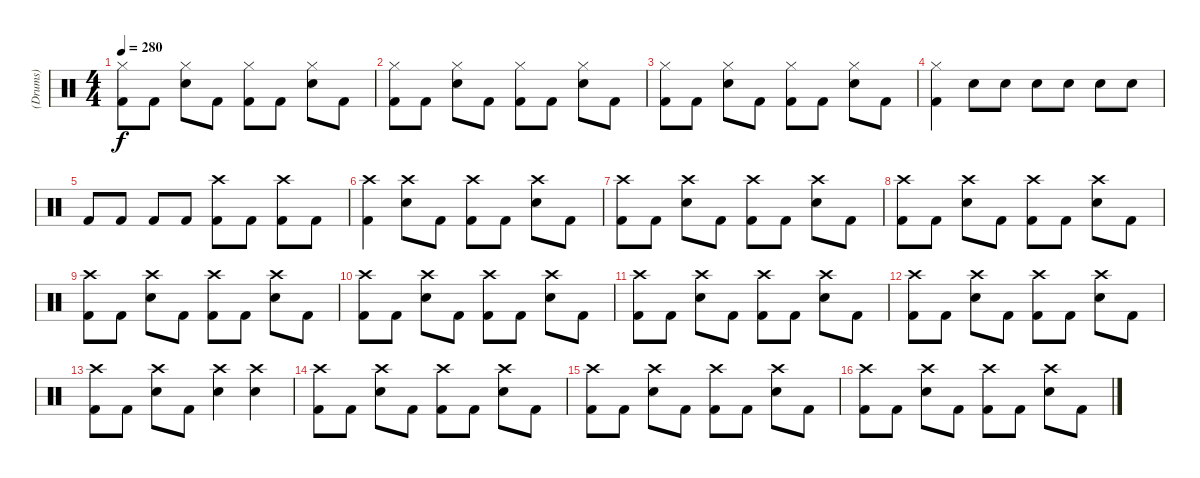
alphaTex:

\track ("(Drums)" "(Drums)") {instrument percussion}
\staff {score}
\articulation defaults
\ts (4 4)
\tempo 280
\clef neutral
\ks c
("Hi-Hat (closed)" "Kick (hit) 2").8{dy f} "Kick (hit) 2".8 ("Hi-Hat (closed)" "Snare (hit) 2").8 "Kick (hit) 2".8 ("Hi-Hat (closed)" "Kick (hit) 2").8 "Kick (hit) 2".8 ("Hi-Hat (closed)" "Snare (hit) 2").8 "Kick (hit) 2".8 |
("Hi-Hat (closed)" "Kick (hit) 2").8 "Kick (hit) 2".8 ("Hi-Hat (closed)" "Snare (hit) 2").8 "Kick (hit) 2".8 ("Hi-Hat (closed)" "Kick (hit) 2").8 "Kick (hit) 2".8 ("Hi-Hat (closed)" "Snare (hit) 2").8 "Kick (hit) 2".8 |
("Hi-Hat (closed)" "Kick (hit) 2").8 "Kick (hit) 2".8 ("Hi-Hat (closed)" "Snare (hit) 2").8 "Kick (hit) 2".8 ("Hi-Hat (closed)" "Kick (hit) 2").8 "Kick (hit) 2".8 ("Hi-Hat (closed)" "Snare (hit) 2").8 "Kick (hit) 2".8 |
("Kick (hit) 2" "Hi-Hat (closed)").4 "Snare (hit) 2".8 "Snare (hit) 2".8 "Snare (hit) 2".8 "Snare (hit) 2".8 "Snare (hit) 2".8 "Snare (hit) 2".8 |
"Kick (hit) 2".8 "Kick (hit) 2".8 "Kick (hit) 2".8 "Kick (hit) 2".8 ("Kick (hit) 2" "Crash high (hit)").8 "Kick (hit) 2".8 ("Kick (hit) 2" "Crash high (hit)").8 "Kick (hit) 2".8 |
("Crash high (hit)" "Kick (hit) 2").4 ("Crash high (hit)" "Snare (hit) 2").8 "Kick (hit) 2".8 ("Crash high (hit)" "Kick (hit) 2").8 "Kick (hit) 2".8 ("Crash high (hit)" "Snare (hit) 2").8 "Kick (hit) 2".8 |
("Crash high (hit)" "Kick (hit) 2").8 "Kick (hit) 2".8 ("Crash high (hit)" "Snare (hit) 2").8 "Kick (hit) 2".8 ("Crash high (hit)" "Kick (hit) 2").8 "Kick (hit) 2".8 ("Crash high (hit)" "Snare (hit) 2").8 "Kick (hit) 2".8 |
("Crash high (hit)" "Kick (hit) 2").8 "Kick (hit) 2".8 ("Crash high (hit)" "Snare (hit) 2").8 "Kick (hit) 2".8 ("Crash high (hit)" "Kick (hit) 2").8 "Kick (hit) 2".8 ("Crash high (hit)" "Snare (hit) 2").8 "Kick (hit) 2".8 |
("Crash high (hit)" "Kick (hit) 2").8 "Kick (hit) 2".8 ("Crash high (hit)" "Snare (hit) 2").8 "Kick (hit) 2".8 ("Crash high (hit)" "Kick (hit) 2").8 "Kick (hit) 2".8 ("Crash high (hit)" "Snare (hit) 2").8 "Kick (hit) 2".8 |
("Crash high (hit)" "Kick (hit) 2").8 "Kick (hit) 2".8 ("Crash high (hit)" "Snare (hit) 2").8 "Kick (hit) 2".8 ("Crash high (hit)" "Kick (hit) 2").8 "Kick (hit) 2".8 ("Crash high (hit)" "Snare (hit) 2").8 "Kick (hit) 2".8 |
("Crash high (hit)" "Kick (hit) 2").8 "Kick (hit) 2".8 ("Crash high (hit)" "Snare (hit) 2").8 "Kick (hit) 2".8 ("Crash high (hit)" "Kick (hit) 2").8 "Kick (hit) 2".8 ("Crash high (hit)" "Snare (hit) 2").8 "Kick (hit) 2".8 |
("Crash high (hit)" "Kick (hit) 2").8 "Kick (hit) 2".8 ("Crash high (hit)" "Snare (hit) 2").8 "Kick (hit) 2".8 ("Crash high (hit)" "Kick (hit) 2").8 "Kick (hit) 2".8 ("Crash high (hit)" "Snare (hit) 2").8 "Kick (hit) 2".8 |
("Crash high (hit)" "Kick (hit) 2").8 "Kick (hit) 2".8 ("Crash high (hit)" "Snare (hit) 2").8 "Kick (hit) 2".8 ("Snare (hit) 2" "Crash high (hit)").4 ("Snare (hit) 2" "Crash high (hit)").4 |
("Crash high (hit)" "Kick (hit) 2").8 "Kick (hit) 2".8 ("Crash high (hit)" "Snare (hit) 2").8 "Kick (hit) 2".8 ("Crash high (hit)" "Kick (hit) 2").8 "Kick (hit) 2".8 ("Crash high (hit)" "Snare (hit) 2").8 "Kick (hit) 2".8 |
("Crash high (hit)" "Kick (hit) 2").8 "Kick (hit) 2".8 ("Crash high (hit)" "Snare (hit) 2").8 "Kick (hit) 2".8 ("Crash high (hit)" "Kick (hit) 2").8 "Kick (hit) 2".8 ("Crash high (hit)" "Snare (hit) 2").8 "Kick (hit) 2".8 |
("Crash high (hit)" "Kick (hit) 2").8 "Kick (hit) 2".8 ("Crash high (hit)" "Snare (hit) 2").8 "Kick (hit) 2".8 ("Crash high (hit)" "Kick (hit) 2").8 "Kick (hit) 2".8 ("Crash high (hit)" "Snare (hit) 2").8 "Kick (hit) 2".8
